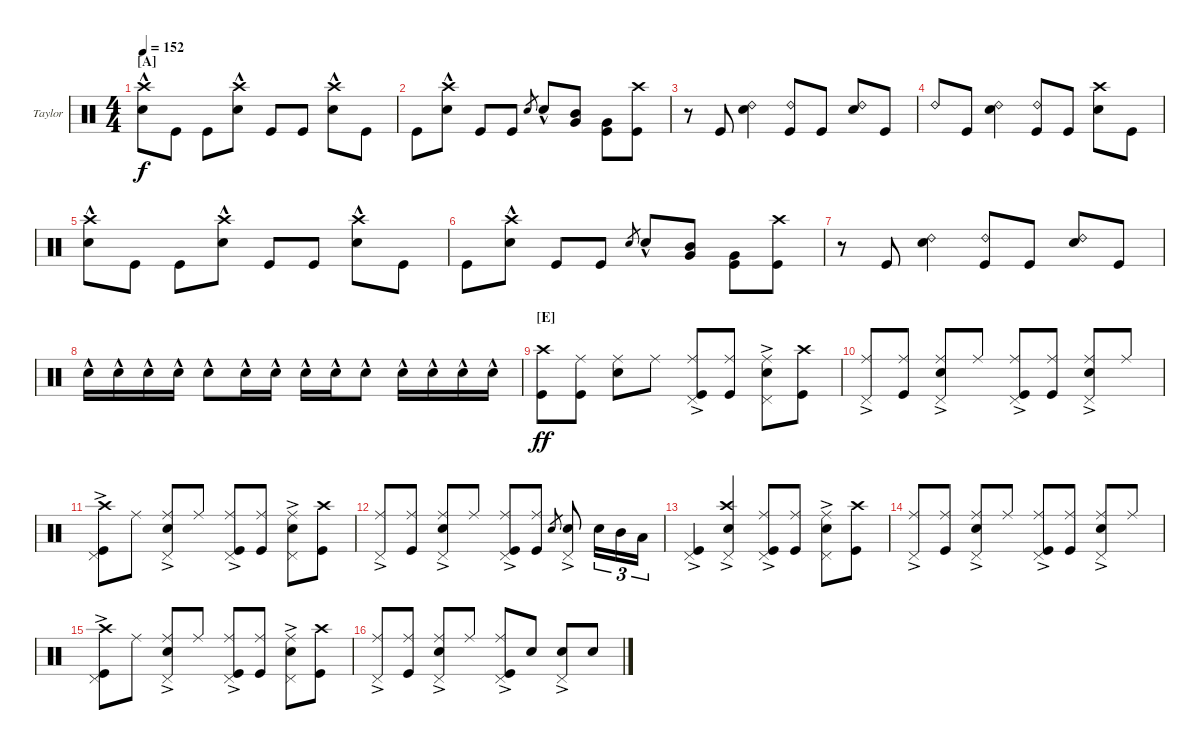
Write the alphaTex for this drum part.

\defaultSystemsLayout 4
\bracketExtendMode nobrackets
\firstSystemTrackNameOrientation horizontal
\otherSystemsTrackNameOrientation horizontal
\track ("Drums (Taylor Hawkins)" "Taylor") {instrument percussion}
\staff {score}
\articulation defaults
\ts (4 4)
\section ("A" "")
\tempo 152
\clef neutral
\ks c
("Snare (hit) 2"{hac} "Crash high (hit)").8{dy f} "Kick (hit)".8 "Kick (hit)".8 ("Crash high (hit)" "Snare (hit) 2"{hac}).8 "Kick (hit)".8 "Kick (hit)".8 ("Snare (hit) 2"{hac} "Crash high (hit)").8 "Kick (hit)".8 |
"Kick (hit)".8 ("Crash high (hit)" "Snare (hit) 2"{hac}).8 "Kick (hit)".8 "Kick (hit)".8 "Snare (hit) 2".8{gr} "Snare (hit) 2"{hac}.8 ("Mid Tom (hit)" "Very Low Tom (hit)").8 ("Very Low Tom (hit)" "Kick (hit)").8 ("Crash high (hit)" "Kick (hit)").8 |
r.8 "Kick (hit)".8 ("Snare (hit) 2" "Ride (bell) 2").4 ("Ride (bell) 2" "Kick (hit)").8 "Kick (hit)".8 ("Snare (hit) 2" "Ride (bell) 2").8 "Kick (hit)".8 |
"Ride (bell) 2".8 "Kick (hit)".8 ("Snare (hit) 2" "Ride (bell) 2").4 ("Kick (hit)" "Ride (bell) 2").8 "Kick (hit)".8 ("Snare (hit) 2" "Crash high (hit)").8 "Kick (hit)".8 |
("Snare (hit) 2"{hac} "Crash high (hit)").8 "Kick (hit)".8 "Kick (hit)".8 ("Crash high (hit)" "Snare (hit) 2"{hac}).8 "Kick (hit)".8 "Kick (hit)".8 ("Snare (hit) 2"{hac} "Crash high (hit)").8 "Kick (hit)".8 |
"Kick (hit)".8 ("Crash high (hit)" "Snare (hit) 2"{hac}).8 "Kick (hit)".8 "Kick (hit)".8 "Snare (hit) 2".8{gr} "Snare (hit) 2"{hac}.8 ("Mid Tom (hit)" "Very Low Tom (hit)").8 ("Very Low Tom (hit)" "Kick (hit)").8 ("Crash high (hit)" "Kick (hit)").8 |
r.8 "Kick (hit)".8 ("Snare (hit) 2" "Ride (bell) 2").4 ("Ride (bell) 2" "Kick (hit)").8 "Kick (hit)".8 ("Snare (hit) 2" "Ride (bell) 2").8 "Kick (hit)".8 |
"Snare (hit) 2"{hac}.16 "Snare (hit) 2"{hac}.16 "Snare (hit) 2"{hac}.16 "Snare (hit) 2"{hac}.16 "Snare (hit) 2"{hac}.8 "Snare (hit) 2"{hac}.16 "Snare (hit) 2"{hac}.16 "Snare (hit) 2"{hac}.16 "Snare (hit) 2"{hac}.16 "Snare (hit) 2"{hac}.8 "Snare (hit) 2"{hac}.16 "Snare (hit) 2"{hac}.16 "Snare (hit) 2"{hac}.16 "Snare (hit) 2"{hac}.16 |
\section ("E" "")
("Crash high (hit)" "Kick (hit)").8{dy ff} ("Ride (middle)" "Kick (hit)").8 ("Ride (middle)" "Snare (hit) 2").8 "Ride (middle)".8 ("Ride (middle)" "Kick (hit)" "Pedal Hi-Hat (hit)"{ac}).8 ("Ride (middle)" "Kick (hit)").8 ("Ride (middle)" "Snare (hit) 2" "Pedal Hi-Hat (hit)"{ac}).8 ("Crash high (hit)" "Kick (hit)").8 |
("Ride (middle)" "Pedal Hi-Hat (hit)"{ac}).8 ("Ride (middle)" "Kick (hit)").8 ("Ride (middle)" "Snare (hit) 2" "Pedal Hi-Hat (hit)"{ac}).8 "Ride (middle)".8 ("Ride (middle)" "Kick (hit)" "Pedal Hi-Hat (hit)"{ac}).8 ("Ride (middle)" "Kick (hit)").8 ("Ride (middle)" "Snare (hit) 2" "Pedal Hi-Hat (hit)"{ac}).8 "Ride (middle)".8 |
("Kick (hit)" "Pedal Hi-Hat (hit)"{ac} "Crash high (hit)").8 "Ride (middle)".8 ("Snare (hit) 2" "Ride (middle)" "Pedal Hi-Hat (hit)"{ac}).8 "Ride (middle)".8 ("Ride (middle)" "Kick (hit)" "Pedal Hi-Hat (hit)"{ac}).8 ("Ride (middle)" "Kick (hit)").8 ("Ride (middle)" "Snare (hit) 2" "Pedal Hi-Hat (hit)"{ac}).8 ("Crash high (hit)" "Kick (hit)").8 |
("Ride (middle)" "Pedal Hi-Hat (hit)"{ac}).8 ("Kick (hit)" "Ride (middle)").8 ("Snare (hit) 2" "Ride (middle)" "Pedal Hi-Hat (hit)"{ac}).8 "Ride (middle)".8 ("Kick (hit)" "Ride (middle)" "Pedal Hi-Hat (hit)"{ac}).8 ("Kick (hit)" "Ride (middle)").8 "Snare (hit) 2".8{gr} ("Snare (hit) 2" "Pedal Hi-Hat (hit)"{ac}).8 "Snare (hit) 2".16{tu (3 2)} "Mid Tom (hit)".16{tu (3 2)} "Low Tom (hit)".16{tu (3 2)} |
("Kick (hit)" "Pedal Hi-Hat (hit)"{ac}).4 ("Snare (hit) 2" "Crash high (hit)" "Pedal Hi-Hat (hit)"{ac}).4 ("Ride (middle)" "Kick (hit)" "Pedal Hi-Hat (hit)"{ac}).8 ("Ride (middle)" "Kick (hit)").8 ("Ride (middle)" "Snare (hit) 2" "Pedal Hi-Hat (hit)"{ac}).8 ("Crash high (hit)" "Kick (hit)").8 |
("Ride (middle)" "Pedal Hi-Hat (hit)"{ac}).8 ("Ride (middle)" "Kick (hit)").8 ("Ride (middle)" "Snare (hit) 2" "Pedal Hi-Hat (hit)"{ac}).8 "Ride (middle)".8 ("Ride (middle)" "Kick (hit)" "Pedal Hi-Hat (hit)"{ac}).8 ("Ride (middle)" "Kick (hit)").8 ("Ride (middle)" "Snare (hit) 2" "Pedal Hi-Hat (hit)"{ac}).8 "Ride (middle)".8 |
("Kick (hit)" "Pedal Hi-Hat (hit)"{ac} "Crash high (hit)").8 "Ride (middle)".8 ("Snare (hit) 2" "Ride (middle)" "Pedal Hi-Hat (hit)"{ac}).8 "Ride (middle)".8 ("Ride (middle)" "Kick (hit)" "Pedal Hi-Hat (hit)"{ac}).8 ("Ride (middle)" "Kick (hit)").8 ("Ride (middle)" "Snare (hit) 2" "Pedal Hi-Hat (hit)"{ac}).8 ("Crash high (hit)" "Kick (hit)").8 |
("Ride (middle)" "Pedal Hi-Hat (hit)"{ac}).8 ("Kick (hit)" "Ride (middle)").8 ("Snare (hit) 2" "Ride (middle)" "Pedal Hi-Hat (hit)"{ac}).8 "Ride (middle)".8 ("Kick (hit)" "Ride (middle)" "Pedal Hi-Hat (hit)"{ac}).8 "Snare (hit) 2".8 ("Snare (hit) 2" "Pedal Hi-Hat (hit)"{ac}).8 "Snare (hit) 2".8
